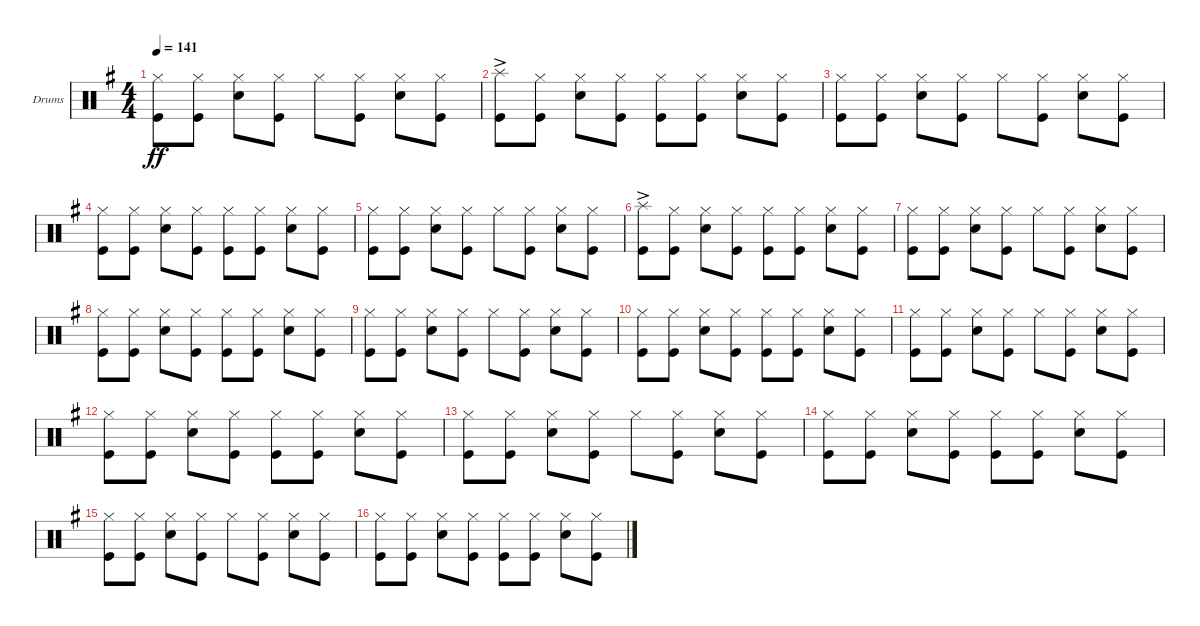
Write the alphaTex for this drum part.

\defaultSystemsLayout 4
\bracketExtendMode groupsimilarinstruments
\firstSystemTrackNameOrientation horizontal
\otherSystemsTrackNameOrientation horizontal
\track ("Drumkit" "Drums") {instrument percussion}
\staff {score}
\articulation defaults
\ts (4 4)
\tempo 141
\clef neutral
\scale
0.333333
\ks g
("Kick (hit)" "Hi-Hat (closed)").8{dy ff} ("Kick (hit)" "Hi-Hat (closed)").8 ("Snare (hit) 2" "Hi-Hat (closed)").8 ("Hi-Hat (closed)" "Kick (hit)").8 "Hi-Hat (closed)".8 ("Kick (hit)" "Hi-Hat (closed)").8 ("Snare (hit) 2" "Hi-Hat (closed)").8 ("Kick (hit)" "Hi-Hat (closed)").8 |
\scale
0.333333 ("Kick (hit)" "Splash (hit)"{ac}).8 ("Kick (hit)" "Hi-Hat (closed)").8 ("Snare (hit) 2" "Hi-Hat (closed)").8 ("Kick (hit)" "Hi-Hat (closed)").8 ("Kick (hit)" "Hi-Hat (closed)").8 ("Kick (hit)" "Hi-Hat (closed)").8 ("Snare (hit) 2" "Hi-Hat (closed)").8 ("Kick (hit)" "Hi-Hat (closed)").8 |
\scale
0.333333 ("Kick (hit)" "Hi-Hat (closed)").8 ("Kick (hit)" "Hi-Hat (closed)").8 ("Snare (hit) 2" "Hi-Hat (closed)").8 ("Kick (hit)" "Hi-Hat (closed)").8 "Hi-Hat (closed)".8 ("Kick (hit)" "Hi-Hat (closed)").8 ("Snare (hit) 2" "Hi-Hat (closed)").8 ("Kick (hit)" "Hi-Hat (closed)").8 |
\scale
0.333333 ("Kick (hit)" "Hi-Hat (closed)").8 ("Kick (hit)" "Hi-Hat (closed)").8 ("Snare (hit) 2" "Hi-Hat (closed)").8 ("Kick (hit)" "Hi-Hat (closed)").8 ("Kick (hit)" "Hi-Hat (closed)").8 ("Kick (hit)" "Hi-Hat (closed)").8 ("Snare (hit) 2" "Hi-Hat (closed)").8 ("Kick (hit)" "Hi-Hat (closed)").8 |
\scale
0.333333 ("Kick (hit)" "Hi-Hat (closed)").8 ("Kick (hit)" "Hi-Hat (closed)").8 ("Snare (hit) 2" "Hi-Hat (closed)").8 ("Hi-Hat (closed)" "Kick (hit)").8 "Hi-Hat (closed)".8 ("Kick (hit)" "Hi-Hat (closed)").8 ("Snare (hit) 2" "Hi-Hat (closed)").8 ("Kick (hit)" "Hi-Hat (closed)").8 |
\scale
0.333333 ("Kick (hit)" "Splash (hit)"{ac}).8 ("Kick (hit)" "Hi-Hat (closed)").8 ("Snare (hit) 2" "Hi-Hat (closed)").8 ("Kick (hit)" "Hi-Hat (closed)").8 ("Kick (hit)" "Hi-Hat (closed)").8 ("Kick (hit)" "Hi-Hat (closed)").8 ("Snare (hit) 2" "Hi-Hat (closed)").8 ("Kick (hit)" "Hi-Hat (closed)").8 |
\scale
0.333333 ("Kick (hit)" "Hi-Hat (closed)").8 ("Kick (hit)" "Hi-Hat (closed)").8 ("Snare (hit) 2" "Hi-Hat (closed)").8 ("Hi-Hat (closed)" "Kick (hit)").8 "Hi-Hat (closed)".8 ("Kick (hit)" "Hi-Hat (closed)").8 ("Snare (hit) 2" "Hi-Hat (closed)").8 ("Kick (hit)" "Hi-Hat (closed)").8 |
\scale
0.333333 ("Kick (hit)" "Hi-Hat (closed)").8 ("Kick (hit)" "Hi-Hat (closed)").8 ("Snare (hit) 2" "Hi-Hat (closed)").8 ("Kick (hit)" "Hi-Hat (closed)").8 ("Kick (hit)" "Hi-Hat (closed)").8 ("Kick (hit)" "Hi-Hat (closed)").8 ("Snare (hit) 2" "Hi-Hat (closed)").8 ("Kick (hit)" "Hi-Hat (closed)").8 |
\scale
0.333333 ("Kick (hit)" "Hi-Hat (closed)").8 ("Kick (hit)" "Hi-Hat (closed)").8 ("Snare (hit) 2" "Hi-Hat (closed)").8 ("Hi-Hat (closed)" "Kick (hit)").8 "Hi-Hat (closed)".8 ("Kick (hit)" "Hi-Hat (closed)").8 ("Snare (hit) 2" "Hi-Hat (closed)").8 ("Kick (hit)" "Hi-Hat (closed)").8 |
\scale
0.333333 ("Kick (hit)" "Hi-Hat (closed)").8 ("Kick (hit)" "Hi-Hat (closed)").8 ("Snare (hit) 2" "Hi-Hat (closed)").8 ("Kick (hit)" "Hi-Hat (closed)").8 ("Kick (hit)" "Hi-Hat (closed)").8 ("Kick (hit)" "Hi-Hat (closed)").8 ("Snare (hit) 2" "Hi-Hat (closed)").8 ("Kick (hit)" "Hi-Hat (closed)").8 |
\scale
0.333333 ("Kick (hit)" "Hi-Hat (closed)").8 ("Kick (hit)" "Hi-Hat (closed)").8 ("Snare (hit) 2" "Hi-Hat (closed)").8 ("Kick (hit)" "Hi-Hat (closed)").8 "Hi-Hat (closed)".8 ("Kick (hit)" "Hi-Hat (closed)").8 ("Snare (hit) 2" "Hi-Hat (closed)").8 ("Kick (hit)" "Hi-Hat (closed)").8 |
\scale
0.333333 ("Kick (hit)" "Hi-Hat (closed)").8 ("Kick (hit)" "Hi-Hat (closed)").8 ("Snare (hit) 2" "Hi-Hat (closed)").8 ("Kick (hit)" "Hi-Hat (closed)").8 ("Kick (hit)" "Hi-Hat (closed)").8 ("Kick (hit)" "Hi-Hat (closed)").8 ("Snare (hit) 2" "Hi-Hat (closed)").8 ("Kick (hit)" "Hi-Hat (closed)").8 |
\scale
0.333333 ("Kick (hit)" "Hi-Hat (closed)").8 ("Kick (hit)" "Hi-Hat (closed)").8 ("Snare (hit) 2" "Hi-Hat (closed)").8 ("Hi-Hat (closed)" "Kick (hit)").8 "Hi-Hat (closed)".8 ("Kick (hit)" "Hi-Hat (closed)").8 ("Snare (hit) 2" "Hi-Hat (closed)").8 ("Kick (hit)" "Hi-Hat (closed)").8 |
\scale
0.333333 ("Kick (hit)" "Hi-Hat (closed)").8 ("Kick (hit)" "Hi-Hat (closed)").8 ("Snare (hit) 2" "Hi-Hat (closed)").8 ("Kick (hit)" "Hi-Hat (closed)").8 ("Kick (hit)" "Hi-Hat (closed)").8 ("Kick (hit)" "Hi-Hat (closed)").8 ("Snare (hit) 2" "Hi-Hat (closed)").8 ("Kick (hit)" "Hi-Hat (closed)").8 |
\scale
0.333333 ("Kick (hit)" "Hi-Hat (closed)").8 ("Kick (hit)" "Hi-Hat (closed)").8 ("Snare (hit) 2" "Hi-Hat (closed)").8 ("Hi-Hat (closed)" "Kick (hit)").8 "Hi-Hat (closed)".8 ("Kick (hit)" "Hi-Hat (closed)").8 ("Snare (hit) 2" "Hi-Hat (closed)").8 ("Kick (hit)" "Hi-Hat (closed)").8 |
\scale
0.333333 ("Kick (hit)" "Hi-Hat (closed)").8 ("Kick (hit)" "Hi-Hat (closed)").8 ("Snare (hit) 2" "Hi-Hat (closed)").8 ("Kick (hit)" "Hi-Hat (closed)").8 ("Kick (hit)" "Hi-Hat (closed)").8 ("Kick (hit)" "Hi-Hat (closed)").8 ("Snare (hit) 2" "Hi-Hat (closed)").8 ("Kick (hit)" "Hi-Hat (closed)").8
